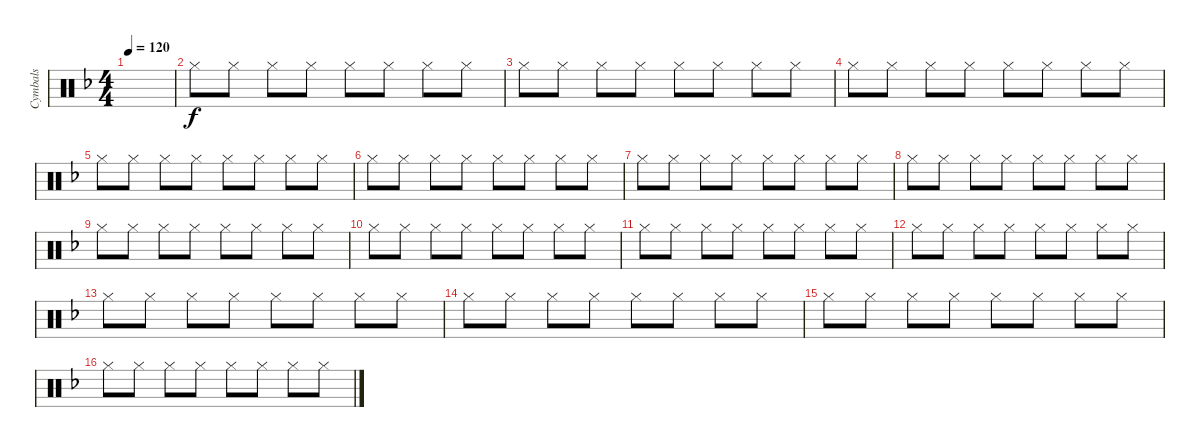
\track ("Cymbals" "Cymbals") {instrument percussion}
\staff {score}
\articulation defaults
\ts (4 4)
\tempo 120
\clef neutral
\ks dminor
|
"Hi-Hat (closed)".8 "Hi-Hat (closed)".8 "Hi-Hat (closed)".8 "Hi-Hat (closed)".8 "Hi-Hat (closed)".8 "Hi-Hat (closed)".8 "Hi-Hat (closed)".8 "Hi-Hat (closed)".8 |
"Hi-Hat (closed)".8 "Hi-Hat (closed)".8 "Hi-Hat (closed)".8 "Hi-Hat (closed)".8 "Hi-Hat (closed)".8 "Hi-Hat (closed)".8 "Hi-Hat (closed)".8 "Hi-Hat (closed)".8 |
"Hi-Hat (closed)".8 "Hi-Hat (closed)".8 "Hi-Hat (closed)".8 "Hi-Hat (closed)".8 "Hi-Hat (closed)".8 "Hi-Hat (closed)".8 "Hi-Hat (closed)".8 "Hi-Hat (closed)".8 |
"Hi-Hat (closed)".8 "Hi-Hat (closed)".8 "Hi-Hat (closed)".8 "Hi-Hat (closed)".8 "Hi-Hat (closed)".8 "Hi-Hat (closed)".8 "Hi-Hat (closed)".8 "Hi-Hat (closed)".8 |
"Hi-Hat (closed)".8 "Hi-Hat (closed)".8 "Hi-Hat (closed)".8 "Hi-Hat (closed)".8 "Hi-Hat (closed)".8 "Hi-Hat (closed)".8 "Hi-Hat (closed)".8 "Hi-Hat (closed)".8 |
"Hi-Hat (closed)".8 "Hi-Hat (closed)".8 "Hi-Hat (closed)".8 "Hi-Hat (closed)".8 "Hi-Hat (closed)".8 "Hi-Hat (closed)".8 "Hi-Hat (closed)".8 "Hi-Hat (closed)".8 |
"Hi-Hat (closed)".8 "Hi-Hat (closed)".8 "Hi-Hat (closed)".8 "Hi-Hat (closed)".8 "Hi-Hat (closed)".8 "Hi-Hat (closed)".8 "Hi-Hat (closed)".8 "Hi-Hat (closed)".8 |
"Hi-Hat (closed)".8 "Hi-Hat (closed)".8 "Hi-Hat (closed)".8 "Hi-Hat (closed)".8 "Hi-Hat (closed)".8 "Hi-Hat (closed)".8 "Hi-Hat (closed)".8 "Hi-Hat (closed)".8 |
"Hi-Hat (closed)".8 "Hi-Hat (closed)".8 "Hi-Hat (closed)".8 "Hi-Hat (closed)".8 "Hi-Hat (closed)".8 "Hi-Hat (closed)".8 "Hi-Hat (closed)".8 "Hi-Hat (closed)".8 |
"Hi-Hat (closed)".8 "Hi-Hat (closed)".8 "Hi-Hat (closed)".8 "Hi-Hat (closed)".8 "Hi-Hat (closed)".8 "Hi-Hat (closed)".8 "Hi-Hat (closed)".8 "Hi-Hat (closed)".8 |
"Hi-Hat (closed)".8 "Hi-Hat (closed)".8 "Hi-Hat (closed)".8 "Hi-Hat (closed)".8 "Hi-Hat (closed)".8 "Hi-Hat (closed)".8 "Hi-Hat (closed)".8 "Hi-Hat (closed)".8 |
"Hi-Hat (closed)".8 "Hi-Hat (closed)".8 "Hi-Hat (closed)".8 "Hi-Hat (closed)".8 "Hi-Hat (closed)".8 "Hi-Hat (closed)".8 "Hi-Hat (closed)".8 "Hi-Hat (closed)".8 |
"Hi-Hat (closed)".8 "Hi-Hat (closed)".8 "Hi-Hat (closed)".8 "Hi-Hat (closed)".8 "Hi-Hat (closed)".8 "Hi-Hat (closed)".8 "Hi-Hat (closed)".8 "Hi-Hat (closed)".8 |
"Hi-Hat (closed)".8 "Hi-Hat (closed)".8 "Hi-Hat (closed)".8 "Hi-Hat (closed)".8 "Hi-Hat (closed)".8 "Hi-Hat (closed)".8 "Hi-Hat (closed)".8 "Hi-Hat (closed)".8 |
"Hi-Hat (closed)".8 "Hi-Hat (closed)".8 "Hi-Hat (closed)".8 "Hi-Hat (closed)".8 "Hi-Hat (closed)".8 "Hi-Hat (closed)".8 "Hi-Hat (closed)".8 "Hi-Hat (closed)".8
